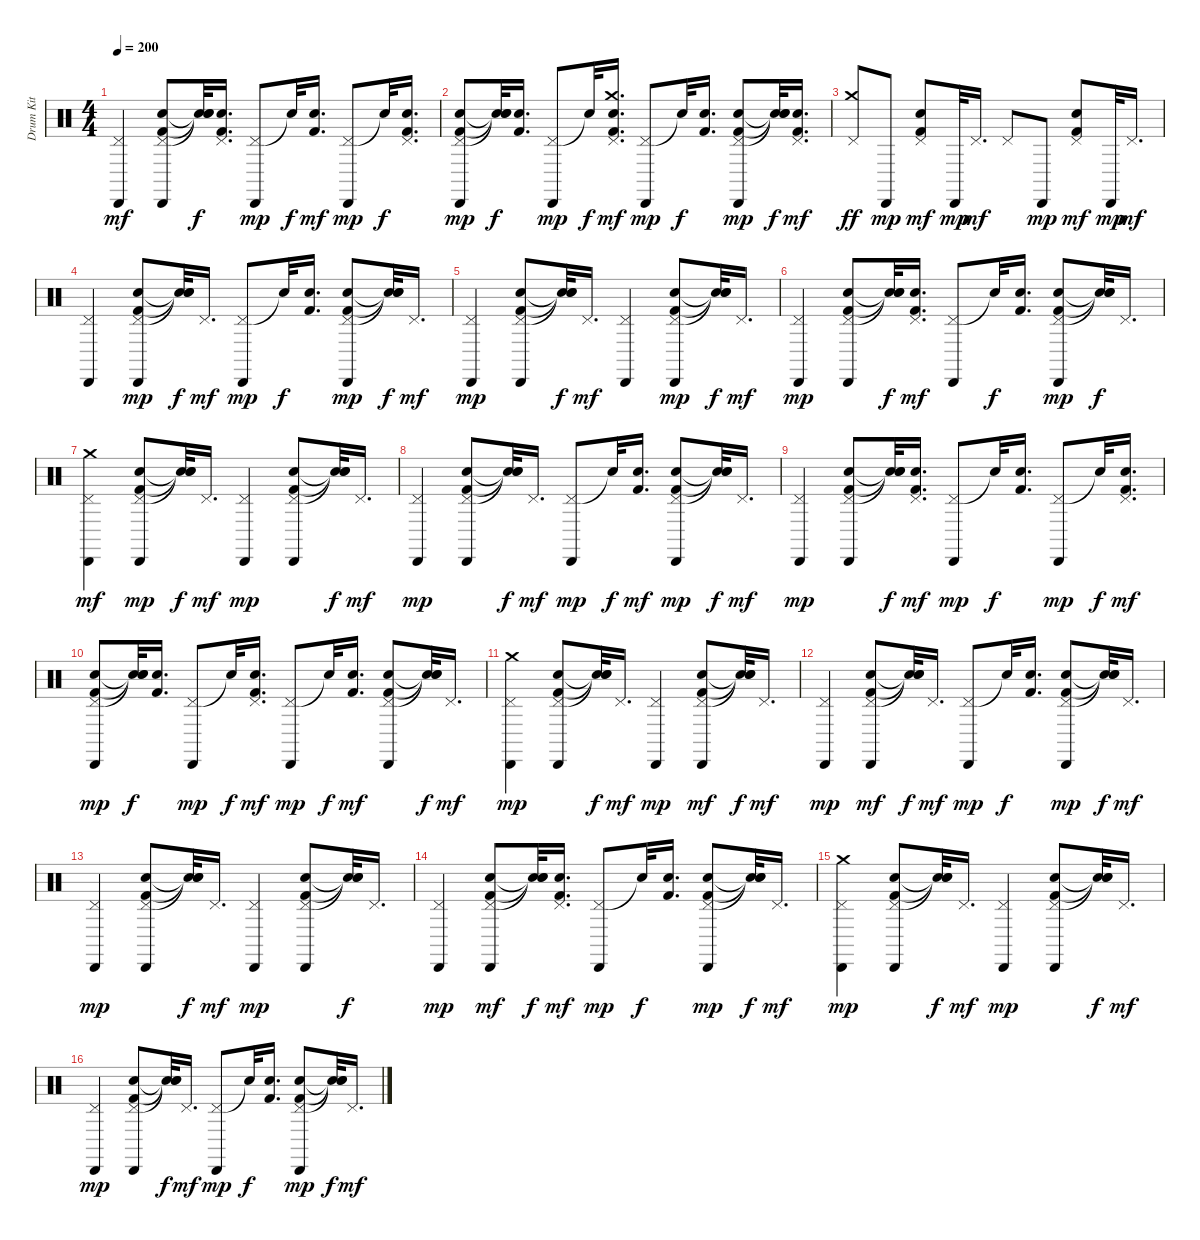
\track ("Drum Kit" "Drum Kit") {instrument percussion}
\staff {score}
\articulation defaults
\ts (4 4)
\tempo 200
\clef neutral
\ks c
("Pedal Hi-Hat (hit)" "Cabasa (hit)").4{dy mf} ("Pedal Hi-Hat (hit)" "Kick (hit) 2" "Snare (hit) 2" "Cabasa (hit)").8 ("Snare (hit)"{t} "Snare (hit)"{t} "Snare (hit)"{t}).32{dy f} ("Kick (hit) 2" "Snare (hit) 2" "Pedal Hi-Hat (hit)").16{d} ("Pedal Hi-Hat (hit)" "Cabasa (hit)").8{dy mp} "Snare (hit)"{t}.32{dy f} ("Kick (hit) 2" "Snare (hit) 2").16{d dy mf} ("Pedal Hi-Hat (hit)" "Cabasa (hit)").8{dy mp} "Snare (hit)"{t}.32{dy f} ("Kick (hit) 2" "Snare (hit) 2" "Pedal Hi-Hat (hit)").16{d} |
("Pedal Hi-Hat (hit)" "Kick (hit) 2" "Snare (hit) 2" "Cabasa (hit)").8{dy mp} ("Snare (hit)"{t} "Snare (hit)"{t} "Snare (hit)"{t}).32{dy f} ("Kick (hit) 2" "Snare (hit) 2").16{d} ("Pedal Hi-Hat (hit)" "Cabasa (hit)").8{dy mp} "Snare (hit)"{t}.32{dy f} ("Kick (hit) 2" "Snare (hit) 2" "Pedal Hi-Hat (hit)" "Crash medium (hit)").16{d dy mf} ("Pedal Hi-Hat (hit)" "Cabasa (hit)").8{dy mp} "Snare (hit)"{t}.32{dy f} ("Kick (hit) 2" "Snare (hit) 2").16{d} ("Pedal Hi-Hat (hit)" "Kick (hit) 2" "Snare (hit) 2" "Cabasa (hit)").8{dy mp} ("Snare (hit)"{t} "Snare (hit)"{t} "Snare (hit)"{t}).32{dy f} ("Kick (hit) 2" "Snare (hit) 2" "Pedal Hi-Hat (hit)").16{d dy mf} |
("Pedal Hi-Hat (hit)" "Crash medium (hit)").8{dy ff} "Cabasa (hit)".8{dy mp} ("Pedal Hi-Hat (hit)" "Kick (hit) 2" "Snare (hit) 2").8{dy mf} "Cabasa (hit)".32{dy mp} "Pedal Hi-Hat (hit)".16{d dy mf} "Pedal Hi-Hat (hit)".8 "Cabasa (hit)".8{dy mp} ("Pedal Hi-Hat (hit)" "Kick (hit) 2" "Snare (hit) 2").8{dy mf} "Cabasa (hit)".32{dy mp} "Pedal Hi-Hat (hit)".16{d dy mf} |
("Pedal Hi-Hat (hit)" "Cabasa (hit)").4 ("Pedal Hi-Hat (hit)" "Kick (hit) 2" "Snare (hit) 2" "Cabasa (hit)").8{dy mp} ("Snare (hit)"{t} "Snare (hit)"{t} "Snare (hit)"{t}).32{dy f} "Pedal Hi-Hat (hit)".16{d dy mf} ("Pedal Hi-Hat (hit)" "Cabasa (hit)").8{dy mp} "Snare (hit)"{t}.32{dy f} ("Kick (hit) 2" "Snare (hit) 2").16{d} ("Pedal Hi-Hat (hit)" "Kick (hit) 2" "Snare (hit) 2" "Cabasa (hit)").8{dy mp} ("Snare (hit)"{t} "Snare (hit)"{t} "Snare (hit)"{t}).32{dy f} "Pedal Hi-Hat (hit)".16{d dy mf} |
("Pedal Hi-Hat (hit)" "Cabasa (hit)").4{dy mp} ("Pedal Hi-Hat (hit)" "Kick (hit) 2" "Snare (hit) 2" "Cabasa (hit)").8 ("Snare (hit)"{t} "Snare (hit)"{t} "Snare (hit)"{t}).32{dy f} "Pedal Hi-Hat (hit)".16{d dy mf} ("Pedal Hi-Hat (hit)" "Cabasa (hit)").4 ("Pedal Hi-Hat (hit)" "Kick (hit) 2" "Snare (hit) 2" "Cabasa (hit)").8{dy mp} ("Snare (hit)"{t} "Snare (hit)"{t} "Snare (hit)"{t}).32{dy f} "Pedal Hi-Hat (hit)".16{d dy mf} |
("Pedal Hi-Hat (hit)" "Cabasa (hit)").4{dy mp} ("Pedal Hi-Hat (hit)" "Kick (hit) 2" "Snare (hit) 2" "Cabasa (hit)").8 ("Snare (hit)"{t} "Snare (hit)"{t} "Snare (hit)"{t}).32{dy f} ("Kick (hit) 2" "Snare (hit) 2" "Pedal Hi-Hat (hit)").16{d dy mf} ("Pedal Hi-Hat (hit)" "Cabasa (hit)").8 "Snare (hit)"{t}.32{dy f} ("Kick (hit) 2" "Snare (hit) 2").16{d} ("Pedal Hi-Hat (hit)" "Kick (hit) 2" "Snare (hit) 2" "Cabasa (hit)").8{dy mp} ("Snare (hit)"{t} "Snare (hit)"{t} "Snare (hit)"{t}).32{dy f} "Pedal Hi-Hat (hit)".16{d} |
("Pedal Hi-Hat (hit)" "Crash medium (hit)" "Cabasa (hit)").4{dy mf} ("Pedal Hi-Hat (hit)" "Kick (hit) 2" "Snare (hit) 2" "Cabasa (hit)").8{dy mp} ("Snare (hit)"{t} "Snare (hit)"{t} "Snare (hit)"{t}).32{dy f} "Pedal Hi-Hat (hit)".16{d dy mf} ("Pedal Hi-Hat (hit)" "Cabasa (hit)").4{dy mp} ("Pedal Hi-Hat (hit)" "Kick (hit) 2" "Snare (hit) 2" "Cabasa (hit)").8 ("Snare (hit)"{t} "Snare (hit)"{t} "Snare (hit)"{t}).32{dy f} "Pedal Hi-Hat (hit)".16{d dy mf} |
("Pedal Hi-Hat (hit)" "Cabasa (hit)").4{dy mp} ("Pedal Hi-Hat (hit)" "Kick (hit) 2" "Snare (hit) 2" "Cabasa (hit)").8 ("Snare (hit)"{t} "Snare (hit)"{t} "Snare (hit)"{t}).32{dy f} "Pedal Hi-Hat (hit)".16{d dy mf} ("Pedal Hi-Hat (hit)" "Cabasa (hit)").8{dy mp} "Snare (hit)"{t}.32{dy f} ("Kick (hit) 2" "Snare (hit) 2").16{d dy mf} ("Pedal Hi-Hat (hit)" "Kick (hit) 2" "Snare (hit) 2" "Cabasa (hit)").8{dy mp} ("Snare (hit)"{t} "Snare (hit)"{t} "Snare (hit)"{t}).32{dy f} "Pedal Hi-Hat (hit)".16{d dy mf} |
("Pedal Hi-Hat (hit)" "Cabasa (hit)").4{dy mp} ("Pedal Hi-Hat (hit)" "Kick (hit) 2" "Snare (hit) 2" "Cabasa (hit)").8 ("Snare (hit)"{t} "Snare (hit)"{t} "Snare (hit)"{t}).32{dy f} ("Kick (hit) 2" "Snare (hit) 2" "Pedal Hi-Hat (hit)").16{d dy mf} ("Pedal Hi-Hat (hit)" "Cabasa (hit)").8{dy mp} "Snare (hit)"{t}.32{dy f} ("Kick (hit) 2" "Snare (hit) 2").16{d} ("Pedal Hi-Hat (hit)" "Cabasa (hit)").8{dy mp} "Snare (hit)"{t}.32{dy f} ("Kick (hit) 2" "Snare (hit) 2" "Pedal Hi-Hat (hit)").16{d dy mf} |
("Pedal Hi-Hat (hit)" "Kick (hit) 2" "Snare (hit) 2" "Cabasa (hit)").8{dy mp} ("Snare (hit)"{t} "Snare (hit)"{t} "Snare (hit)"{t}).32{dy f} ("Kick (hit) 2" "Snare (hit) 2").16{d} ("Pedal Hi-Hat (hit)" "Cabasa (hit)").8{dy mp} "Snare (hit)"{t}.32{dy f} ("Kick (hit) 2" "Snare (hit) 2" "Pedal Hi-Hat (hit)").16{d dy mf} ("Pedal Hi-Hat (hit)" "Cabasa (hit)").8{dy mp} "Snare (hit)"{t}.32{dy f} ("Kick (hit) 2" "Snare (hit) 2").16{d dy mf} ("Pedal Hi-Hat (hit)" "Kick (hit) 2" "Snare (hit) 2" "Cabasa (hit)").8 ("Snare (hit)"{t} "Snare (hit)"{t} "Snare (hit)"{t}).32{dy f} "Pedal Hi-Hat (hit)".16{d dy mf} |
("Pedal Hi-Hat (hit)" "Crash medium (hit)" "Cabasa (hit)").4{dy mp} ("Pedal Hi-Hat (hit)" "Kick (hit) 2" "Snare (hit) 2" "Cabasa (hit)").8 ("Snare (hit)"{t} "Snare (hit)"{t} "Snare (hit)"{t}).32{dy f} "Pedal Hi-Hat (hit)".16{d dy mf} ("Pedal Hi-Hat (hit)" "Cabasa (hit)").4{dy mp} ("Pedal Hi-Hat (hit)" "Kick (hit) 2" "Snare (hit) 2" "Cabasa (hit)").8{dy mf} ("Snare (hit)"{t} "Snare (hit)"{t} "Snare (hit)"{t}).32{dy f} "Pedal Hi-Hat (hit)".16{d dy mf} |
("Pedal Hi-Hat (hit)" "Cabasa (hit)").4{dy mp} ("Pedal Hi-Hat (hit)" "Kick (hit) 2" "Snare (hit) 2" "Cabasa (hit)").8{dy mf} ("Snare (hit)"{t} "Snare (hit)"{t} "Snare (hit)"{t}).32{dy f} "Pedal Hi-Hat (hit)".16{d dy mf} ("Pedal Hi-Hat (hit)" "Cabasa (hit)").8{dy mp} "Snare (hit)"{t}.32{dy f} ("Kick (hit) 2" "Snare (hit) 2").16{d} ("Pedal Hi-Hat (hit)" "Kick (hit) 2" "Snare (hit) 2" "Cabasa (hit)").8{dy mp} ("Snare (hit)"{t} "Snare (hit)"{t} "Snare (hit)"{t}).32{dy f} "Pedal Hi-Hat (hit)".16{d dy mf} |
("Pedal Hi-Hat (hit)" "Cabasa (hit)").4{dy mp} ("Pedal Hi-Hat (hit)" "Kick (hit) 2" "Snare (hit) 2" "Cabasa (hit)").8 ("Snare (hit)"{t} "Snare (hit)"{t} "Snare (hit)"{t}).32{dy f} "Pedal Hi-Hat (hit)".16{d dy mf} ("Pedal Hi-Hat (hit)" "Cabasa (hit)").4{dy mp} ("Pedal Hi-Hat (hit)" "Kick (hit) 2" "Snare (hit) 2" "Cabasa (hit)").8 ("Snare (hit)"{t} "Snare (hit)"{t} "Snare (hit)"{t}).32{dy f} "Pedal Hi-Hat (hit)".16{d} |
("Pedal Hi-Hat (hit)" "Cabasa (hit)").4{dy mp} ("Pedal Hi-Hat (hit)" "Kick (hit) 2" "Snare (hit) 2" "Cabasa (hit)").8{dy mf} ("Snare (hit)"{t} "Snare (hit)"{t} "Snare (hit)"{t}).32{dy f} ("Kick (hit) 2" "Snare (hit) 2" "Pedal Hi-Hat (hit)").16{d dy mf} ("Pedal Hi-Hat (hit)" "Cabasa (hit)").8{dy mp} "Snare (hit)"{t}.32{dy f} ("Kick (hit) 2" "Snare (hit) 2").16{d} ("Pedal Hi-Hat (hit)" "Kick (hit) 2" "Snare (hit) 2" "Cabasa (hit)").8{dy mp} ("Snare (hit)"{t} "Snare (hit)"{t} "Snare (hit)"{t}).32{dy f} "Pedal Hi-Hat (hit)".16{d dy mf} |
("Pedal Hi-Hat (hit)" "Crash medium (hit)" "Cabasa (hit)").4{dy mp} ("Pedal Hi-Hat (hit)" "Kick (hit) 2" "Snare (hit) 2" "Cabasa (hit)").8 ("Snare (hit)"{t} "Snare (hit)"{t} "Snare (hit)"{t}).32{dy f} "Pedal Hi-Hat (hit)".16{d dy mf} ("Pedal Hi-Hat (hit)" "Cabasa (hit)").4{dy mp} ("Pedal Hi-Hat (hit)" "Kick (hit) 2" "Snare (hit) 2" "Cabasa (hit)").8 ("Snare (hit)"{t} "Snare (hit)"{t} "Snare (hit)"{t}).32{dy f} "Pedal Hi-Hat (hit)".16{d dy mf} |
("Pedal Hi-Hat (hit)" "Cabasa (hit)").4{dy mp} ("Pedal Hi-Hat (hit)" "Kick (hit) 2" "Snare (hit) 2" "Cabasa (hit)").8 ("Snare (hit)"{t} "Snare (hit)"{t} "Snare (hit)"{t}).32{dy f} "Pedal Hi-Hat (hit)".16{d dy mf} ("Pedal Hi-Hat (hit)" "Cabasa (hit)").8{dy mp} "Snare (hit)"{t}.32{dy f} ("Kick (hit) 2" "Snare (hit) 2").16{d} ("Pedal Hi-Hat (hit)" "Kick (hit) 2" "Snare (hit) 2" "Cabasa (hit)").8{dy mp} ("Snare (hit)"{t} "Snare (hit)"{t} "Snare (hit)"{t}).32{dy f} "Pedal Hi-Hat (hit)".16{d dy mf}
